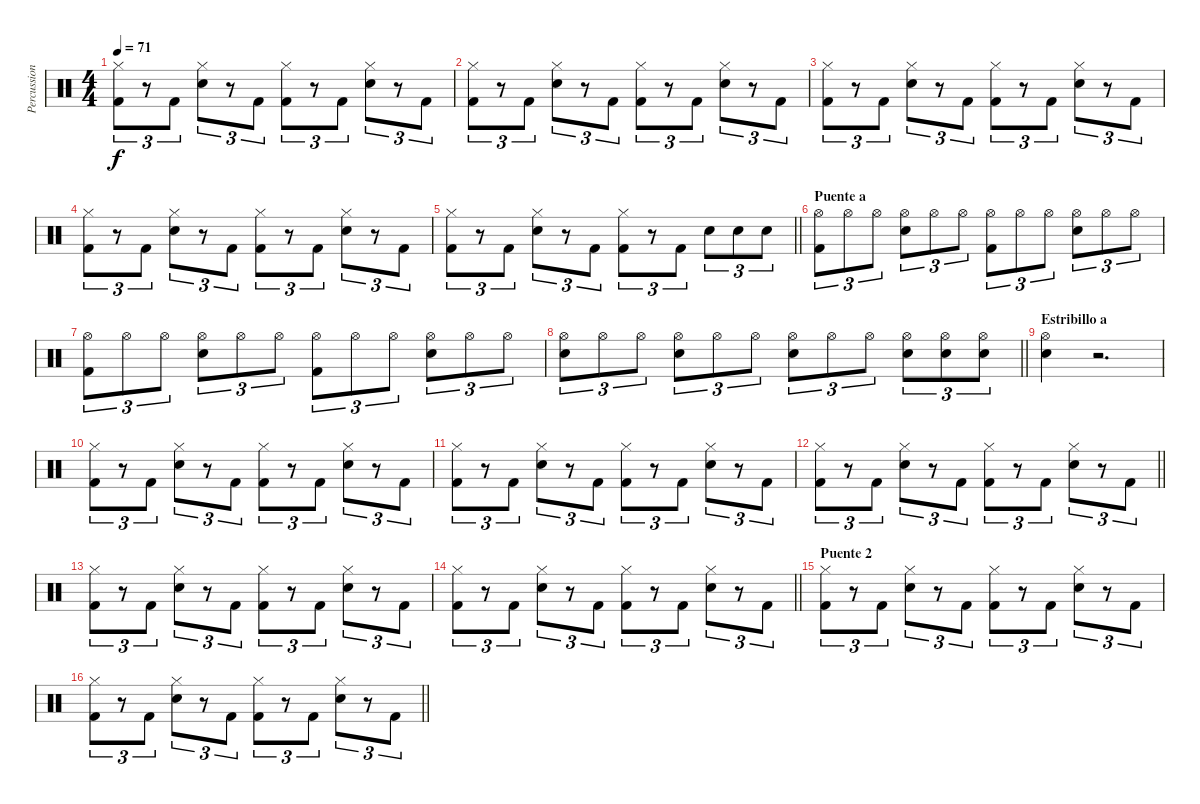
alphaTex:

\track ("Percussion" "Percussion") {instrument percussion}
\staff {score}
\articulation defaults
\ts (4 4)
\tempo 71
\clef neutral
\ks c
("Hi-Hat (closed)" "Kick (hit) 2").8{tu (3 2) dy f} r.8{tu (3 2)} "Kick (hit) 2".8{tu (3 2)} ("Hi-Hat (closed)" "Snare (hit) 2").8{tu (3 2)} r.8{tu (3 2)} "Kick (hit) 2".8{tu (3 2)} ("Hi-Hat (closed)" "Kick (hit) 2").8{tu (3 2)} r.8{tu (3 2)} "Kick (hit) 2".8{tu (3 2)} ("Hi-Hat (closed)" "Snare (hit) 2").8{tu (3 2)} r.8{tu (3 2)} "Kick (hit) 2".8{tu (3 2)} |
("Hi-Hat (closed)" "Kick (hit) 2").8{tu (3 2)} r.8{tu (3 2)} "Kick (hit) 2".8{tu (3 2)} ("Hi-Hat (closed)" "Snare (hit) 2").8{tu (3 2)} r.8{tu (3 2)} "Kick (hit) 2".8{tu (3 2)} ("Hi-Hat (closed)" "Kick (hit) 2").8{tu (3 2)} r.8{tu (3 2)} "Kick (hit) 2".8{tu (3 2)} ("Hi-Hat (closed)" "Snare (hit) 2").8{tu (3 2)} r.8{tu (3 2)} "Kick (hit) 2".8{tu (3 2)} |
("Hi-Hat (closed)" "Kick (hit) 2").8{tu (3 2)} r.8{tu (3 2)} "Kick (hit) 2".8{tu (3 2)} ("Hi-Hat (closed)" "Snare (hit) 2").8{tu (3 2)} r.8{tu (3 2)} "Kick (hit) 2".8{tu (3 2)} ("Hi-Hat (closed)" "Kick (hit) 2").8{tu (3 2)} r.8{tu (3 2)} "Kick (hit) 2".8{tu (3 2)} ("Hi-Hat (closed)" "Snare (hit) 2").8{tu (3 2)} r.8{tu (3 2)} "Kick (hit) 2".8{tu (3 2)} |
("Hi-Hat (closed)" "Kick (hit) 2").8{tu (3 2)} r.8{tu (3 2)} "Kick (hit) 2".8{tu (3 2)} ("Hi-Hat (closed)" "Snare (hit) 2").8{tu (3 2)} r.8{tu (3 2)} "Kick (hit) 2".8{tu (3 2)} ("Hi-Hat (closed)" "Kick (hit) 2").8{tu (3 2)} r.8{tu (3 2)} "Kick (hit) 2".8{tu (3 2)} ("Hi-Hat (closed)" "Snare (hit) 2").8{tu (3 2)} r.8{tu (3 2)} "Kick (hit) 2".8{tu (3 2)} |
\barLineRight lightlight
("Hi-Hat (closed)" "Kick (hit) 2").8{tu (3 2)} r.8{tu (3 2)} "Kick (hit) 2".8{tu (3 2)} ("Hi-Hat (closed)" "Snare (hit) 2").8{tu (3 2)} r.8{tu (3 2)} "Kick (hit) 2".8{tu (3 2)} ("Hi-Hat (closed)" "Kick (hit) 2").8{tu (3 2)} r.8{tu (3 2)} "Kick (hit) 2".8{tu (3 2)} "Snare (hit) 2".8{tu (3 2)} "Snare (hit) 2".8{tu (3 2)} "Snare (hit) 2".8{tu (3 2)} |
\section ("" "Puente a")
("Hi-Hat (open)" "Kick (hit) 2").8{tu (3 2)} "Hi-Hat (open)".8{tu (3 2)} "Hi-Hat (open)".8{tu (3 2)} ("Hi-Hat (open)" "Snare (hit) 2").8{tu (3 2)} "Hi-Hat (open)".8{tu (3 2)} "Hi-Hat (open)".8{tu (3 2)} ("Hi-Hat (open)" "Kick (hit) 2").8{tu (3 2)} "Hi-Hat (open)".8{tu (3 2)} "Hi-Hat (open)".8{tu (3 2)} ("Hi-Hat (open)" "Snare (hit) 2").8{tu (3 2)} "Hi-Hat (open)".8{tu (3 2)} "Hi-Hat (open)".8{tu (3 2)} |
("Hi-Hat (open)" "Kick (hit) 2").8{tu (3 2)} "Hi-Hat (open)".8{tu (3 2)} "Hi-Hat (open)".8{tu (3 2)} ("Hi-Hat (open)" "Snare (hit) 2").8{tu (3 2)} "Hi-Hat (open)".8{tu (3 2)} "Hi-Hat (open)".8{tu (3 2)} ("Hi-Hat (open)" "Kick (hit) 2").8{tu (3 2)} "Hi-Hat (open)".8{tu (3 2)} "Hi-Hat (open)".8{tu (3 2)} ("Hi-Hat (open)" "Snare (hit) 2").8{tu (3 2)} "Hi-Hat (open)".8{tu (3 2)} "Hi-Hat (open)".8{tu (3 2)} |
\barLineRight lightlight
("Hi-Hat (open)" "Snare (hit) 2").8{tu (3 2)} "Hi-Hat (open)".8{tu (3 2)} "Hi-Hat (open)".8{tu (3 2)} ("Hi-Hat (open)" "Snare (hit) 2").8{tu (3 2)} "Hi-Hat (open)".8{tu (3 2)} "Hi-Hat (open)".8{tu (3 2)} ("Hi-Hat (open)" "Snare (hit) 2").8{tu (3 2)} "Hi-Hat (open)".8{tu (3 2)} "Hi-Hat (open)".8{tu (3 2)} ("Hi-Hat (open)" "Snare (hit) 2").8{tu (3 2)} ("Hi-Hat (open)" "Snare (hit) 2").8{tu (3 2)} ("Hi-Hat (open)" "Snare (hit) 2").8{tu (3 2)} |
\section ("" "Estribillo a")
("Hi-Hat (open)" "Snare (hit) 2").4 r.2{d} |
("Hi-Hat (closed)" "Kick (hit) 2").8{tu (3 2)} r.8{tu (3 2)} "Kick (hit) 2".8{tu (3 2)} ("Hi-Hat (closed)" "Snare (hit) 2").8{tu (3 2)} r.8{tu (3 2)} "Kick (hit) 2".8{tu (3 2)} ("Hi-Hat (closed)" "Kick (hit) 2").8{tu (3 2)} r.8{tu (3 2)} "Kick (hit) 2".8{tu (3 2)} ("Hi-Hat (closed)" "Snare (hit) 2").8{tu (3 2)} r.8{tu (3 2)} "Kick (hit) 2".8{tu (3 2)} |
("Hi-Hat (closed)" "Kick (hit) 2").8{tu (3 2)} r.8{tu (3 2)} "Kick (hit) 2".8{tu (3 2)} ("Hi-Hat (closed)" "Snare (hit) 2").8{tu (3 2)} r.8{tu (3 2)} "Kick (hit) 2".8{tu (3 2)} ("Hi-Hat (closed)" "Kick (hit) 2").8{tu (3 2)} r.8{tu (3 2)} "Kick (hit) 2".8{tu (3 2)} ("Hi-Hat (closed)" "Snare (hit) 2").8{tu (3 2)} r.8{tu (3 2)} "Kick (hit) 2".8{tu (3 2)} |
\barLineRight lightlight
("Hi-Hat (closed)" "Kick (hit) 2").8{tu (3 2)} r.8{tu (3 2)} "Kick (hit) 2".8{tu (3 2)} ("Hi-Hat (closed)" "Snare (hit) 2").8{tu (3 2)} r.8{tu (3 2)} "Kick (hit) 2".8{tu (3 2)} ("Hi-Hat (closed)" "Kick (hit) 2").8{tu (3 2)} r.8{tu (3 2)} "Kick (hit) 2".8{tu (3 2)} ("Hi-Hat (closed)" "Snare (hit) 2").8{tu (3 2)} r.8{tu (3 2)} "Kick (hit) 2".8{tu (3 2)} |
("Hi-Hat (closed)" "Kick (hit) 2").8{tu (3 2)} r.8{tu (3 2)} "Kick (hit) 2".8{tu (3 2)} ("Hi-Hat (closed)" "Snare (hit) 2").8{tu (3 2)} r.8{tu (3 2)} "Kick (hit) 2".8{tu (3 2)} ("Hi-Hat (closed)" "Kick (hit) 2").8{tu (3 2)} r.8{tu (3 2)} "Kick (hit) 2".8{tu (3 2)} ("Hi-Hat (closed)" "Snare (hit) 2").8{tu (3 2)} r.8{tu (3 2)} "Kick (hit) 2".8{tu (3 2)} |
\barLineRight lightlight
("Hi-Hat (closed)" "Kick (hit) 2").8{tu (3 2)} r.8{tu (3 2)} "Kick (hit) 2".8{tu (3 2)} ("Hi-Hat (closed)" "Snare (hit) 2").8{tu (3 2)} r.8{tu (3 2)} "Kick (hit) 2".8{tu (3 2)} ("Hi-Hat (closed)" "Kick (hit) 2").8{tu (3 2)} r.8{tu (3 2)} "Kick (hit) 2".8{tu (3 2)} ("Hi-Hat (closed)" "Snare (hit) 2").8{tu (3 2)} r.8{tu (3 2)} "Kick (hit) 2".8{tu (3 2)} |
\section ("" "Puente 2")
("Hi-Hat (closed)" "Kick (hit) 2").8{tu (3 2)} r.8{tu (3 2)} "Kick (hit) 2".8{tu (3 2)} ("Hi-Hat (closed)" "Snare (hit) 2").8{tu (3 2)} r.8{tu (3 2)} "Kick (hit) 2".8{tu (3 2)} ("Hi-Hat (closed)" "Kick (hit) 2").8{tu (3 2)} r.8{tu (3 2)} "Kick (hit) 2".8{tu (3 2)} ("Hi-Hat (closed)" "Snare (hit) 2").8{tu (3 2)} r.8{tu (3 2)} "Kick (hit) 2".8{tu (3 2)} |
\barLineRight lightlight
("Hi-Hat (closed)" "Kick (hit) 2").8{tu (3 2)} r.8{tu (3 2)} "Kick (hit) 2".8{tu (3 2)} ("Hi-Hat (closed)" "Snare (hit) 2").8{tu (3 2)} r.8{tu (3 2)} "Kick (hit) 2".8{tu (3 2)} ("Hi-Hat (closed)" "Kick (hit) 2").8{tu (3 2)} r.8{tu (3 2)} "Kick (hit) 2".8{tu (3 2)} ("Hi-Hat (closed)" "Snare (hit) 2").8{tu (3 2)} r.8{tu (3 2)} "Kick (hit) 2".8{tu (3 2)}
